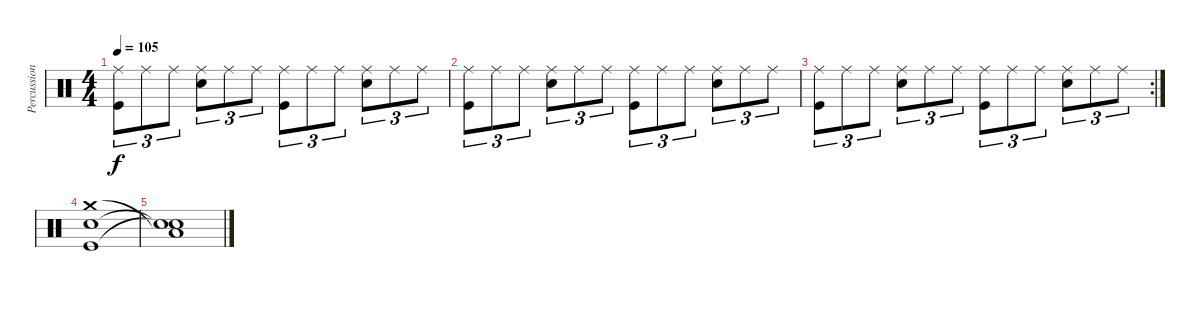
\track ("Percussions" "Percussion") {instrument percussion}
\staff {score}
\articulation defaults
\ts (4 4)
\tempo 105
\clef neutral
\ks c
("Ride (middle)" "Kick (hit)").8{tu (3 2) dy f} "Ride (middle)".8{tu (3 2)} "Ride (middle)".8{tu (3 2)} ("Ride (middle)" "Electric Snare (hit)").8{tu (3 2)} "Ride (middle)".8{tu (3 2)} "Ride (middle)".8{tu (3 2)} ("Ride (middle)" "Kick (hit)").8{tu (3 2)} "Ride (middle)".8{tu (3 2)} "Ride (middle)".8{tu (3 2)} ("Ride (middle)" "Electric Snare (hit)").8{tu (3 2)} "Ride (middle)".8{tu (3 2)} "Ride (middle)".8{tu (3 2)} |
("Ride (middle)" "Kick (hit)").8{tu (3 2)} "Ride (middle)".8{tu (3 2)} "Ride (middle)".8{tu (3 2)} ("Ride (middle)" "Electric Snare (hit)").8{tu (3 2)} "Ride (middle)".8{tu (3 2)} "Ride (middle)".8{tu (3 2)} ("Ride (middle)" "Kick (hit)").8{tu (3 2)} "Ride (middle)".8{tu (3 2)} "Ride (middle)".8{tu (3 2)} ("Ride (middle)" "Electric Snare (hit)").8{tu (3 2)} "Ride (middle)".8{tu (3 2)} "Ride (middle)".8{tu (3 2)} |
\rc 2
("Ride (middle)" "Kick (hit)").8{tu (3 2)} "Ride (middle)".8{tu (3 2)} "Ride (middle)".8{tu (3 2)} ("Ride (middle)" "Electric Snare (hit)").8{tu (3 2)} "Ride (middle)".8{tu (3 2)} "Ride (middle)".8{tu (3 2)} ("Ride (middle)" "Kick (hit)").8{tu (3 2)} "Ride (middle)".8{tu (3 2)} "Ride (middle)".8{tu (3 2)} ("Ride (middle)" "Electric Snare (hit)").8{tu (3 2)} "Ride (middle)".8{tu (3 2)} "Ride (middle)".8{tu (3 2)} |
("Crash medium (hit)" "Electric Snare (hit)" "Kick (hit)").1 |
("Low Tom (hit)"{t} "Snare (hit)"{t} "Snare (hit)"{t}).1
